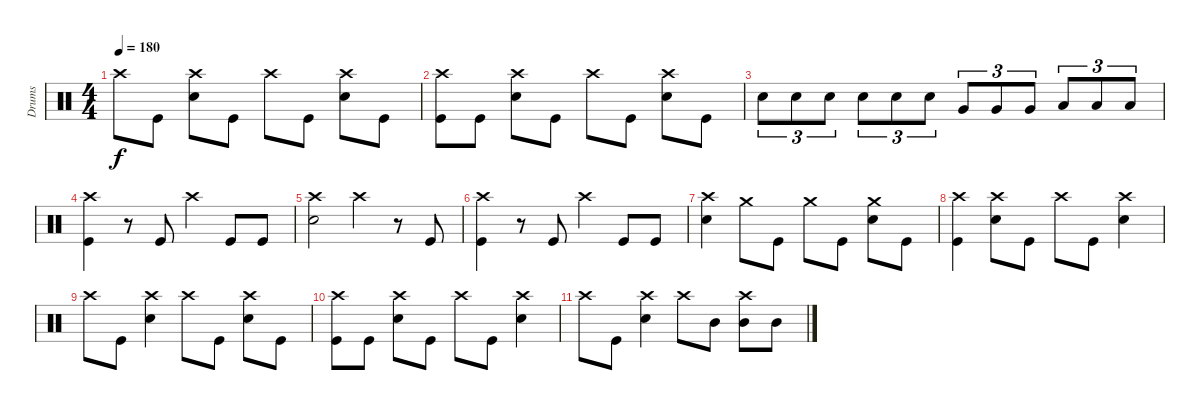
\track ("Drums" "Drums") {instrument percussion}
\staff {score}
\articulation defaults
\ts (4 4)
\tempo 180
\clef neutral
\ks c "Crash high (hit)".8{dy f} "Kick (hit)".8
("Crash high (hit)" "Snare (hit) 2").8 "Kick (hit)".8 "Crash high (hit)".8 "Kick (hit)".8 ("Crash high (hit)" "Snare (hit) 2").8 "Kick (hit)".8 |
("Crash high (hit)" "Kick (hit)").8 "Kick (hit)".8 ("Crash high (hit)" "Snare (hit) 2").8 "Kick (hit)".8 "Crash high (hit)".8 "Kick (hit)".8 ("Crash high (hit)" "Snare (hit) 2").8 "Kick (hit)".8 |
"Snare (hit) 2".8{tu (3 2)} "Snare (hit) 2".8{tu (3 2)} "Snare (hit) 2".8{tu (3 2)} "Snare (hit) 2".8{tu (3 2)} "Snare (hit) 2".8{tu (3 2)} "Snare (hit) 2".8{tu (3 2)} "Very Low Tom (hit)".8{tu (3 2)} "Very Low Tom (hit)".8{tu (3 2)} "Very Low Tom (hit)".8{tu (3 2)} "Low Floor Tom (hit)".8{tu (3 2)} "Low Floor Tom (hit)".8{tu (3 2)} "Low Floor Tom (hit)".8{tu (3 2)} |
("Crash high (hit)" "Kick (hit)").4 r.8 "Kick (hit)".8 "Crash high (hit)".4 "Kick (hit)".8 "Kick (hit)".8 |
("Crash high (hit)" "Snare (hit) 2").2 "Crash high (hit)".4 r.8 "Kick (hit)".8 |
("Crash high (hit)" "Kick (hit)").4 r.8 "Kick (hit)".8 "Crash high (hit)".4 "Kick (hit)".8 "Kick (hit)".8 |
("Crash high (hit)" "Snare (hit) 2").4 "Crash medium (hit)".8 "Kick (hit)".8 "Crash medium (hit)".8 "Kick (hit)".8 ("Crash medium (hit)" "Snare (hit) 2").8 "Kick (hit)".8 |
("Crash high (hit)" "Kick (hit)").4 ("Crash high (hit)" "Snare (hit) 2").8 "Kick (hit)".8 "Crash high (hit)".8 "Kick (hit)".8 ("Crash high (hit)" "Snare (hit) 2").4 |
"Crash high (hit)".8 "Kick (hit)".8 ("Crash high (hit)" "Snare (hit) 2").4 "Crash high (hit)".8 "Kick (hit)".8 ("Crash high (hit)" "Snare (hit) 2").8 "Kick (hit)".8 |
("Crash high (hit)" "Kick (hit)").8 "Kick (hit)".8 ("Crash high (hit)" "Snare (hit) 2").8 "Kick (hit)".8 "Crash high (hit)".8 "Kick (hit)".8 ("Crash high (hit)" "Snare (hit) 2").4 |
"Crash high (hit)".8 "Kick (hit)".8 ("Crash high (hit)" "Snare (hit) 2").4 "Crash high (hit)".8 "Mid Tom (hit)".8 ("Crash high (hit)" "Mid Tom (hit)").8 "Mid Tom (hit)".8
